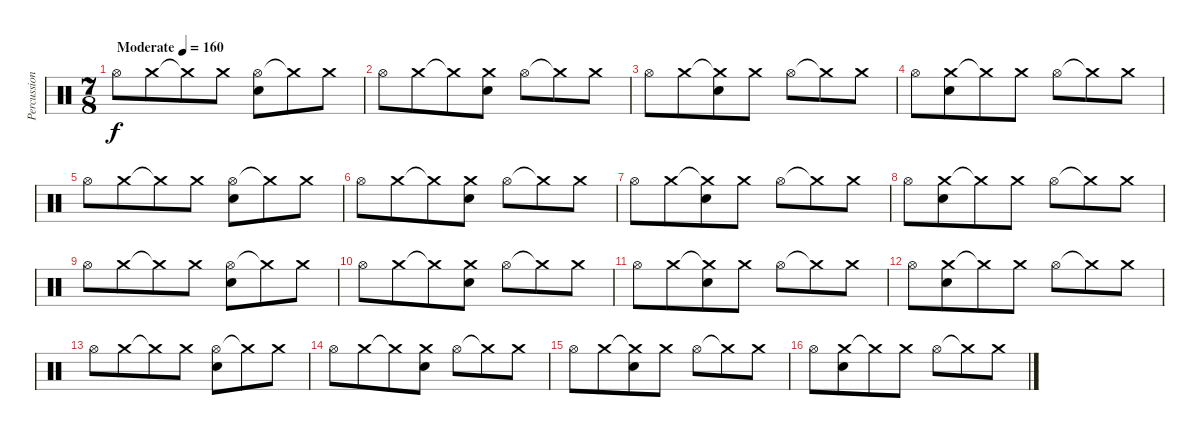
\track ("Percussion" "Percussion") {instrument percussion}
\staff {score}
\articulation defaults
\ts (7 8)
\tempo (160 "Moderate")
\clef neutral
\ks c "Hi-Hat (open)".8{dy f} "Crash medium (hit)".8 "Crash medium (hit)"{t}.8 "Crash medium (hit)".8
("Hi-Hat (open)" "Snare (hit) 2").8 "Crash medium (hit)"{t}.8 "Crash medium (hit)".8 |
"Hi-Hat (open)".8 "Crash medium (hit)".8 "Crash medium (hit)"{t}.8 ("Crash medium (hit)" "Snare (hit) 2").8 "Hi-Hat (open)".8 "Crash medium (hit)"{t}.8 "Crash medium (hit)".8 |
"Hi-Hat (open)".8 "Crash medium (hit)".8 ("Crash medium (hit)"{t} "Snare (hit) 2").8 "Crash medium (hit)".8 "Hi-Hat (open)".8 "Crash medium (hit)"{t}.8 "Crash medium (hit)".8 |
"Hi-Hat (open)".8 ("Crash medium (hit)" "Snare (hit) 2").8 "Crash medium (hit)"{t}.8 "Crash medium (hit)".8 "Hi-Hat (open)".8 "Crash medium (hit)"{t}.8 "Crash medium (hit)".8 |
"Hi-Hat (open)".8 "Crash medium (hit)".8 "Crash medium (hit)"{t}.8 "Crash medium (hit)".8 ("Hi-Hat (open)" "Snare (hit) 2").8 "Crash medium (hit)"{t}.8 "Crash medium (hit)".8 |
"Hi-Hat (open)".8 "Crash medium (hit)".8 "Crash medium (hit)"{t}.8 ("Crash medium (hit)" "Snare (hit) 2").8 "Hi-Hat (open)".8 "Crash medium (hit)"{t}.8 "Crash medium (hit)".8 |
"Hi-Hat (open)".8 "Crash medium (hit)".8 ("Crash medium (hit)"{t} "Snare (hit) 2").8 "Crash medium (hit)".8 "Hi-Hat (open)".8 "Crash medium (hit)"{t}.8 "Crash medium (hit)".8 |
"Hi-Hat (open)".8 ("Crash medium (hit)" "Snare (hit) 2").8 "Crash medium (hit)"{t}.8 "Crash medium (hit)".8 "Hi-Hat (open)".8 "Crash medium (hit)"{t}.8 "Crash medium (hit)".8 |
"Hi-Hat (open)".8 "Crash medium (hit)".8 "Crash medium (hit)"{t}.8 "Crash medium (hit)".8 ("Hi-Hat (open)" "Snare (hit) 2").8 "Crash medium (hit)"{t}.8 "Crash medium (hit)".8 |
"Hi-Hat (open)".8 "Crash medium (hit)".8 "Crash medium (hit)"{t}.8 ("Crash medium (hit)" "Snare (hit) 2").8 "Hi-Hat (open)".8 "Crash medium (hit)"{t}.8 "Crash medium (hit)".8 |
"Hi-Hat (open)".8 "Crash medium (hit)".8 ("Crash medium (hit)"{t} "Snare (hit) 2").8 "Crash medium (hit)".8 "Hi-Hat (open)".8 "Crash medium (hit)"{t}.8 "Crash medium (hit)".8 |
"Hi-Hat (open)".8 ("Crash medium (hit)" "Snare (hit) 2").8 "Crash medium (hit)"{t}.8 "Crash medium (hit)".8 "Hi-Hat (open)".8 "Crash medium (hit)"{t}.8 "Crash medium (hit)".8 |
"Hi-Hat (open)".8 "Crash medium (hit)".8 "Crash medium (hit)"{t}.8 "Crash medium (hit)".8 ("Hi-Hat (open)" "Snare (hit) 2").8 "Crash medium (hit)"{t}.8 "Crash medium (hit)".8 |
"Hi-Hat (open)".8 "Crash medium (hit)".8 "Crash medium (hit)"{t}.8 ("Crash medium (hit)" "Snare (hit) 2").8 "Hi-Hat (open)".8 "Crash medium (hit)"{t}.8 "Crash medium (hit)".8 |
"Hi-Hat (open)".8 "Crash medium (hit)".8 ("Crash medium (hit)"{t} "Snare (hit) 2").8 "Crash medium (hit)".8 "Hi-Hat (open)".8 "Crash medium (hit)"{t}.8 "Crash medium (hit)".8 |
"Hi-Hat (open)".8 ("Crash medium (hit)" "Snare (hit) 2").8 "Crash medium (hit)"{t}.8 "Crash medium (hit)".8 "Hi-Hat (open)".8 "Crash medium (hit)"{t}.8 "Crash medium (hit)".8
